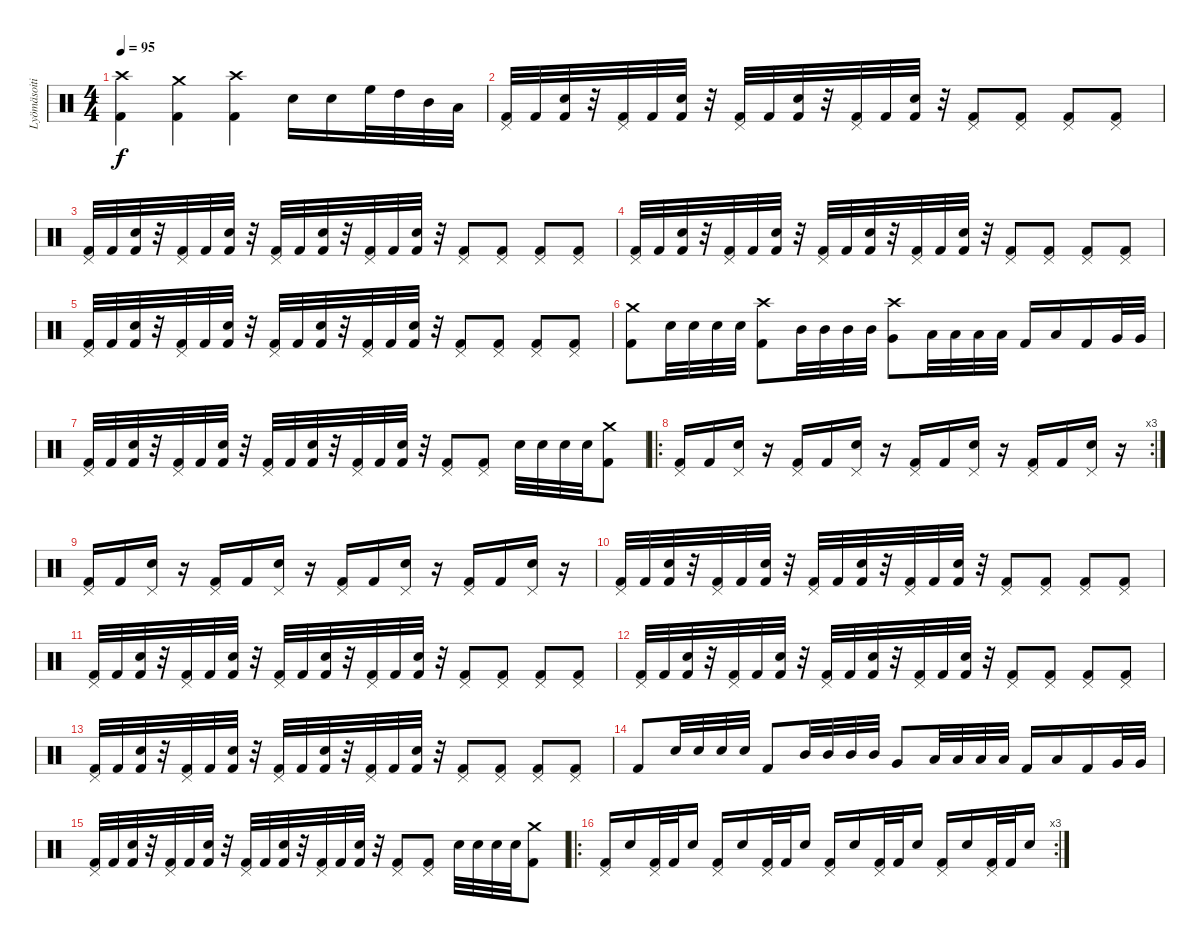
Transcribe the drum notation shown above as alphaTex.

\track ("Lyömäsoitin" "Lyömäsoiti") {instrument percussion}
\staff {score}
\articulation defaults
\ts (4 4)
\tempo 95
\clef neutral
\ks c
("Kick (hit) 2" "Crash high (hit)").4{dy f} ("Kick (hit) 2" "Crash medium (hit)").4 ("Kick (hit) 2" "Crash high (hit)").4 "Snare (hit) 2".16 "Snare (hit) 2".16 "High Floor Tom (hit)".32 "High Tom (hit)".32 "Mid Tom (hit)".32 "Low Tom (hit)".32 |
("Kick (hit) 2" "Pedal Hi-Hat (hit)").32 "Kick (hit) 2".32 ("Kick (hit) 2" "Snare (hit) 2").32 r.32 ("Kick (hit) 2" "Pedal Hi-Hat (hit)").32 "Kick (hit) 2".32 ("Kick (hit) 2" "Snare (hit) 2").32 r.32 ("Kick (hit) 2" "Pedal Hi-Hat (hit)").32 "Kick (hit) 2".32 ("Kick (hit) 2" "Snare (hit) 2").32 r.32 ("Kick (hit) 2" "Pedal Hi-Hat (hit)").32 "Kick (hit) 2".32 ("Kick (hit) 2" "Snare (hit) 2").32 r.32 ("Kick (hit) 2" "Pedal Hi-Hat (hit)").8 ("Kick (hit) 2" "Pedal Hi-Hat (hit)").8 ("Kick (hit) 2" "Pedal Hi-Hat (hit)").8 ("Kick (hit) 2" "Pedal Hi-Hat (hit)").8 |
("Kick (hit) 2" "Pedal Hi-Hat (hit)").32 "Kick (hit) 2".32 ("Kick (hit) 2" "Snare (hit) 2").32 r.32 ("Kick (hit) 2" "Pedal Hi-Hat (hit)").32 "Kick (hit) 2".32 ("Kick (hit) 2" "Snare (hit) 2").32 r.32 ("Kick (hit) 2" "Pedal Hi-Hat (hit)").32 "Kick (hit) 2".32 ("Kick (hit) 2" "Snare (hit) 2").32 r.32 ("Kick (hit) 2" "Pedal Hi-Hat (hit)").32 "Kick (hit) 2".32 ("Kick (hit) 2" "Snare (hit) 2").32 r.32 ("Kick (hit) 2" "Pedal Hi-Hat (hit)").8 ("Kick (hit) 2" "Pedal Hi-Hat (hit)").8 ("Kick (hit) 2" "Pedal Hi-Hat (hit)").8 ("Kick (hit) 2" "Pedal Hi-Hat (hit)").8 |
("Kick (hit) 2" "Pedal Hi-Hat (hit)").32 "Kick (hit) 2".32 ("Kick (hit) 2" "Snare (hit) 2").32 r.32 ("Kick (hit) 2" "Pedal Hi-Hat (hit)").32 "Kick (hit) 2".32 ("Kick (hit) 2" "Snare (hit) 2").32 r.32 ("Kick (hit) 2" "Pedal Hi-Hat (hit)").32 "Kick (hit) 2".32 ("Kick (hit) 2" "Snare (hit) 2").32 r.32 ("Kick (hit) 2" "Pedal Hi-Hat (hit)").32 "Kick (hit) 2".32 ("Kick (hit) 2" "Snare (hit) 2").32 r.32 ("Kick (hit) 2" "Pedal Hi-Hat (hit)").8 ("Kick (hit) 2" "Pedal Hi-Hat (hit)").8 ("Kick (hit) 2" "Pedal Hi-Hat (hit)").8 ("Kick (hit) 2" "Pedal Hi-Hat (hit)").8 |
("Kick (hit) 2" "Pedal Hi-Hat (hit)").32 "Kick (hit) 2".32 ("Kick (hit) 2" "Snare (hit) 2").32 r.32 ("Kick (hit) 2" "Pedal Hi-Hat (hit)").32 "Kick (hit) 2".32 ("Kick (hit) 2" "Snare (hit) 2").32 r.32 ("Kick (hit) 2" "Pedal Hi-Hat (hit)").32 "Kick (hit) 2".32 ("Kick (hit) 2" "Snare (hit) 2").32 r.32 ("Kick (hit) 2" "Pedal Hi-Hat (hit)").32 "Kick (hit) 2".32 ("Kick (hit) 2" "Snare (hit) 2").32 r.32 ("Kick (hit) 2" "Pedal Hi-Hat (hit)").8 ("Kick (hit) 2" "Pedal Hi-Hat (hit)").8 ("Kick (hit) 2" "Pedal Hi-Hat (hit)").8 ("Kick (hit) 2" "Pedal Hi-Hat (hit)").8 |
("Kick (hit) 2" "Crash medium (hit)").8 "Snare (hit) 2".32 "Snare (hit) 2".32 "Snare (hit) 2".32 "Snare (hit) 2".32 ("Kick (hit) 2" "Crash high (hit)").8 "Mid Tom (hit)".32 "Mid Tom (hit)".32 "Mid Tom (hit)".32 "Mid Tom (hit)".32 ("Very Low Tom (hit)" "Crash high (hit)").8 "Low Tom (hit)".32 "Low Tom (hit)".32 "Low Tom (hit)".32 "Low Tom (hit)".32 "Kick (hit) 2".16 "Low Tom (hit)".16 "Kick (hit) 2".16 "Very Low Tom (hit)".32 "Very Low Tom (hit)".32 |
("Kick (hit) 2" "Pedal Hi-Hat (hit)").32 "Kick (hit) 2".32 ("Kick (hit) 2" "Electric Snare (hit)").32 r.32 ("Kick (hit) 2" "Pedal Hi-Hat (hit)").32 "Kick (hit) 2".32 ("Kick (hit) 2" "Electric Snare (hit)").32 r.32 ("Kick (hit) 2" "Pedal Hi-Hat (hit)").32 "Kick (hit) 2".32 ("Kick (hit) 2" "Electric Snare (hit)").32 r.32 ("Kick (hit) 2" "Pedal Hi-Hat (hit)").32 "Kick (hit) 2".32 ("Kick (hit) 2" "Electric Snare (hit)").32 r.32 ("Kick (hit) 2" "Pedal Hi-Hat (hit)").8 ("Kick (hit) 2" "Pedal Hi-Hat (hit)").8 "Snare (hit) 2".32 "Snare (hit) 2".32 "Snare (hit) 2".32 "Snare (hit) 2".32 ("Kick (hit) 2" "Crash medium (hit)").8 |
\ro
\rc 3
("Kick (hit) 2" "Pedal Hi-Hat (hit)").16 "Kick (hit) 2".16 ("Snare (hit) 2" "Pedal Hi-Hat (hit)").16 r.16 ("Kick (hit) 2" "Pedal Hi-Hat (hit)").16 "Kick (hit) 2".16 ("Snare (hit) 2" "Pedal Hi-Hat (hit)").16 r.16 ("Kick (hit) 2" "Pedal Hi-Hat (hit)").16 "Kick (hit) 2".16 ("Snare (hit) 2" "Pedal Hi-Hat (hit)").16 r.16 ("Kick (hit) 2" "Pedal Hi-Hat (hit)").16 "Kick (hit) 2".16 ("Snare (hit) 2" "Pedal Hi-Hat (hit)").16 r.16 |
("Kick (hit) 2" "Pedal Hi-Hat (hit)").16 "Kick (hit) 2".16 ("Electric Snare (hit)" "Pedal Hi-Hat (hit)").16 r.16 ("Kick (hit) 2" "Pedal Hi-Hat (hit)").16 "Kick (hit) 2".16 ("Electric Snare (hit)" "Pedal Hi-Hat (hit)").16 r.16 ("Kick (hit) 2" "Pedal Hi-Hat (hit)").16 "Kick (hit) 2".16 ("Electric Snare (hit)" "Pedal Hi-Hat (hit)").16 r.16 ("Kick (hit) 2" "Pedal Hi-Hat (hit)").16 "Kick (hit) 2".16 ("Electric Snare (hit)" "Pedal Hi-Hat (hit)").16 r.16 |
("Kick (hit) 2" "Pedal Hi-Hat (hit)").32 "Kick (hit) 2".32 ("Kick (hit) 2" "Electric Snare (hit)").32 r.32 ("Kick (hit) 2" "Pedal Hi-Hat (hit)").32 "Kick (hit) 2".32 ("Kick (hit) 2" "Electric Snare (hit)").32 r.32 ("Kick (hit) 2" "Pedal Hi-Hat (hit)").32 "Kick (hit) 2".32 ("Kick (hit) 2" "Electric Snare (hit)").32 r.32 ("Kick (hit) 2" "Pedal Hi-Hat (hit)").32 "Kick (hit) 2".32 ("Kick (hit) 2" "Electric Snare (hit)").32 r.32 ("Kick (hit) 2" "Pedal Hi-Hat (hit)").8 ("Kick (hit) 2" "Pedal Hi-Hat (hit)").8 ("Kick (hit) 2" "Pedal Hi-Hat (hit)").8 ("Kick (hit) 2" "Pedal Hi-Hat (hit)").8 |
("Kick (hit) 2" "Pedal Hi-Hat (hit)").32 "Kick (hit) 2".32 ("Kick (hit) 2" "Electric Snare (hit)").32 r.32 ("Kick (hit) 2" "Pedal Hi-Hat (hit)").32 "Kick (hit) 2".32 ("Kick (hit) 2" "Electric Snare (hit)").32 r.32 ("Kick (hit) 2" "Pedal Hi-Hat (hit)").32 "Kick (hit) 2".32 ("Kick (hit) 2" "Electric Snare (hit)").32 r.32 ("Kick (hit) 2" "Pedal Hi-Hat (hit)").32 "Kick (hit) 2".32 ("Kick (hit) 2" "Electric Snare (hit)").32 r.32 ("Kick (hit) 2" "Pedal Hi-Hat (hit)").8 ("Kick (hit) 2" "Pedal Hi-Hat (hit)").8 ("Kick (hit) 2" "Pedal Hi-Hat (hit)").8 ("Kick (hit) 2" "Pedal Hi-Hat (hit)").8 |
("Kick (hit) 2" "Pedal Hi-Hat (hit)").32 "Kick (hit) 2".32 ("Kick (hit) 2" "Electric Snare (hit)").32 r.32 ("Kick (hit) 2" "Pedal Hi-Hat (hit)").32 "Kick (hit) 2".32 ("Kick (hit) 2" "Electric Snare (hit)").32 r.32 ("Kick (hit) 2" "Pedal Hi-Hat (hit)").32 "Kick (hit) 2".32 ("Kick (hit) 2" "Electric Snare (hit)").32 r.32 ("Kick (hit) 2" "Pedal Hi-Hat (hit)").32 "Kick (hit) 2".32 ("Kick (hit) 2" "Electric Snare (hit)").32 r.32 ("Kick (hit) 2" "Pedal Hi-Hat (hit)").8 ("Kick (hit) 2" "Pedal Hi-Hat (hit)").8 ("Kick (hit) 2" "Pedal Hi-Hat (hit)").8 ("Kick (hit) 2" "Pedal Hi-Hat (hit)").8 |
("Kick (hit) 2" "Pedal Hi-Hat (hit)").32 "Kick (hit) 2".32 ("Kick (hit) 2" "Electric Snare (hit)").32 r.32 ("Kick (hit) 2" "Pedal Hi-Hat (hit)").32 "Kick (hit) 2".32 ("Kick (hit) 2" "Electric Snare (hit)").32 r.32 ("Kick (hit) 2" "Pedal Hi-Hat (hit)").32 "Kick (hit) 2".32 ("Kick (hit) 2" "Electric Snare (hit)").32 r.32 ("Kick (hit) 2" "Pedal Hi-Hat (hit)").32 "Kick (hit) 2".32 ("Kick (hit) 2" "Electric Snare (hit)").32 r.32 ("Kick (hit) 2" "Pedal Hi-Hat (hit)").8 ("Kick (hit) 2" "Pedal Hi-Hat (hit)").8 ("Kick (hit) 2" "Pedal Hi-Hat (hit)").8 ("Kick (hit) 2" "Pedal Hi-Hat (hit)").8 |
"Kick (hit) 2".8 "Electric Snare (hit)".32 "Electric Snare (hit)".32 "Electric Snare (hit)".32 "Electric Snare (hit)".32 "Kick (hit) 2".8 "Mid Tom (hit)".32 "Mid Tom (hit)".32 "Mid Tom (hit)".32 "Mid Tom (hit)".32 "Very Low Tom (hit)".8 "Low Tom (hit)".32 "Low Tom (hit)".32 "Low Tom (hit)".32 "Low Tom (hit)".32 "Kick (hit) 2".16 "Low Tom (hit)".16 "Kick (hit) 2".16 "Very Low Tom (hit)".32 "Very Low Tom (hit)".32 |
("Kick (hit) 2" "Pedal Hi-Hat (hit)").32 "Kick (hit) 2".32 ("Kick (hit) 2" "Electric Snare (hit)").32 r.32 ("Kick (hit) 2" "Pedal Hi-Hat (hit)").32 "Kick (hit) 2".32 ("Kick (hit) 2" "Electric Snare (hit)").32 r.32 ("Kick (hit) 2" "Pedal Hi-Hat (hit)").32 "Kick (hit) 2".32 ("Kick (hit) 2" "Electric Snare (hit)").32 r.32 ("Kick (hit) 2" "Pedal Hi-Hat (hit)").32 "Kick (hit) 2".32 ("Kick (hit) 2" "Electric Snare (hit)").32 r.32 ("Kick (hit) 2" "Pedal Hi-Hat (hit)").8 ("Kick (hit) 2" "Pedal Hi-Hat (hit)").8 "Electric Snare (hit)".32 "Electric Snare (hit)".32 "Electric Snare (hit)".32 "Electric Snare (hit)".32 ("Kick (hit) 2" "Crash medium (hit)").8 |
\ro
\rc 3
("Kick (hit) 2" "Pedal Hi-Hat (hit)").16 "Electric Snare (hit)".16 ("Kick (hit) 2" "Pedal Hi-Hat (hit)").32 "Kick (hit) 2".32 "Electric Snare (hit)".16 ("Kick (hit) 2" "Pedal Hi-Hat (hit)").16 "Electric Snare (hit)".16 ("Kick (hit) 2" "Pedal Hi-Hat (hit)").32 "Kick (hit) 2".32 "Electric Snare (hit)".16 ("Kick (hit) 2" "Pedal Hi-Hat (hit)").16 "Electric Snare (hit)".16 ("Kick (hit) 2" "Pedal Hi-Hat (hit)").32 "Kick (hit) 2".32 "Electric Snare (hit)".16 ("Kick (hit) 2" "Pedal Hi-Hat (hit)").16 "Electric Snare (hit)".16 ("Kick (hit) 2" "Pedal Hi-Hat (hit)").32 "Kick (hit) 2".32 "Electric Snare (hit)".16
